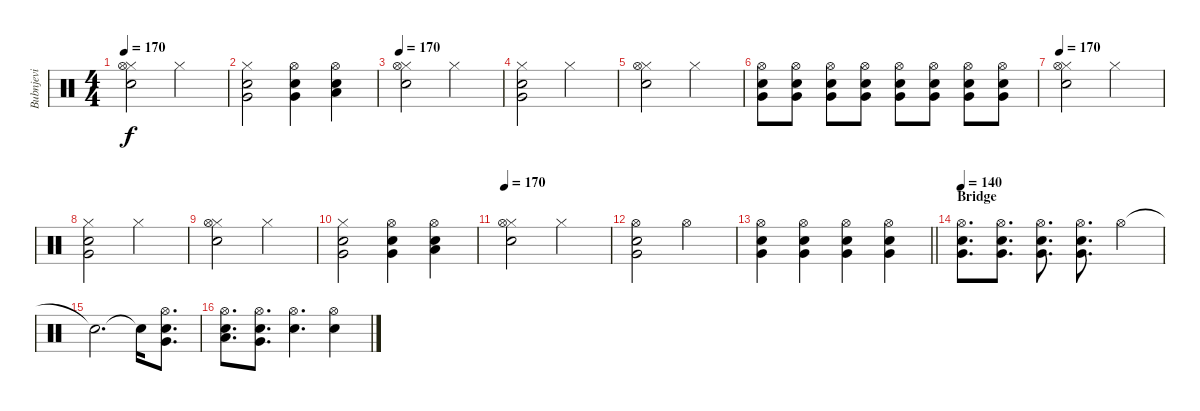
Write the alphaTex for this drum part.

\track ("Bubnjevi" "Bubnjevi") {instrument percussion}
\staff {score}
\articulation defaults
\ts (4 4)
\tempo 170
\clef neutral
\ks c
("Hi-Hat (closed)" "Hi-Hat (open)" "Electric Snare (hit)").2{dy f} "Hi-Hat (closed)".2 |
("Hi-Hat (closed)" "Very Low Tom (hit)" "Electric Snare (hit)").2 ("Hi-Hat (open)" "Very Low Tom (hit)" "Electric Snare (hit)").4 ("Hi-Hat (open)" "Low Tom (hit)" "Electric Snare (hit)").4 |
\tempo 170
("Hi-Hat (closed)" "Hi-Hat (open)" "Electric Snare (hit)").2 "Hi-Hat (closed)".2 |
("Hi-Hat (closed)" "Very Low Tom (hit)" "Electric Snare (hit)").2 "Hi-Hat (closed)".2 |
("Hi-Hat (closed)" "Hi-Hat (open)" "Electric Snare (hit)").2 "Hi-Hat (closed)".2 |
("Hi-Hat (open)" "Very Low Tom (hit)" "Electric Snare (hit)").8 ("Hi-Hat (open)" "Very Low Tom (hit)" "Electric Snare (hit)").8 ("Hi-Hat (open)" "Very Low Tom (hit)" "Electric Snare (hit)").8 ("Hi-Hat (open)" "Very Low Tom (hit)" "Electric Snare (hit)").8 ("Hi-Hat (open)" "Very Low Tom (hit)" "Electric Snare (hit)").8 ("Hi-Hat (open)" "Very Low Tom (hit)" "Electric Snare (hit)").8 ("Hi-Hat (open)" "Very Low Tom (hit)" "Electric Snare (hit)").8 ("Hi-Hat (open)" "Very Low Tom (hit)" "Electric Snare (hit)").8 |
\tempo 170
("Hi-Hat (closed)" "Hi-Hat (open)" "Electric Snare (hit)").2 "Hi-Hat (closed)".2 |
("Hi-Hat (closed)" "Very Low Tom (hit)" "Electric Snare (hit)").2 "Hi-Hat (closed)".2 |
("Hi-Hat (closed)" "Hi-Hat (open)" "Electric Snare (hit)").2 "Hi-Hat (closed)".2 |
("Hi-Hat (closed)" "Very Low Tom (hit)" "Electric Snare (hit)").2 ("Hi-Hat (open)" "Very Low Tom (hit)" "Electric Snare (hit)").4 ("Hi-Hat (open)" "Low Tom (hit)" "Electric Snare (hit)").4 |
\tempo 170
("Hi-Hat (closed)" "Hi-Hat (open)" "Electric Snare (hit)").2 "Hi-Hat (closed)".2 |
("Hi-Hat (open)" "Electric Snare (hit)" "Very Low Tom (hit)").2 "Hi-Hat (open)".2 |
\barLineRight lightlight
("Hi-Hat (open)" "Very Low Tom (hit)" "Electric Snare (hit)").4 ("Hi-Hat (open)" "Very Low Tom (hit)" "Electric Snare (hit)").4 ("Hi-Hat (open)" "Very Low Tom (hit)" "Electric Snare (hit)").4 ("Hi-Hat (open)" "Very Low Tom (hit)" "Electric Snare (hit)").4 |
\section ("" "Bridge")
\tempo 140
("Hi-Hat (open)" "Very Low Tom (hit)" "Electric Snare (hit)").8{d} ("Hi-Hat (open)" "Very Low Tom (hit)" "Electric Snare (hit)").8{d} ("Hi-Hat (open)" "Very Low Tom (hit)" "Electric Snare (hit)").8{d} ("Hi-Hat (open)" "Very Low Tom (hit)" "Electric Snare (hit)").8{d} "Hi-Hat (open)".4 |
"Snare (hit)"{t}.2{d} "Snare (hit)"{t}.16 ("Hi-Hat (open)" "Very Low Tom (hit)" "Electric Snare (hit)").8{d} |
("Hi-Hat (open)" "Low Tom (hit)" "Electric Snare (hit)").8{d} ("Hi-Hat (open)" "Very Low Tom (hit)" "Electric Snare (hit)").8{d} ("Hi-Hat (open)" "Electric Snare (hit)").4{d} ("Hi-Hat (open)" "Electric Snare (hit)").4
